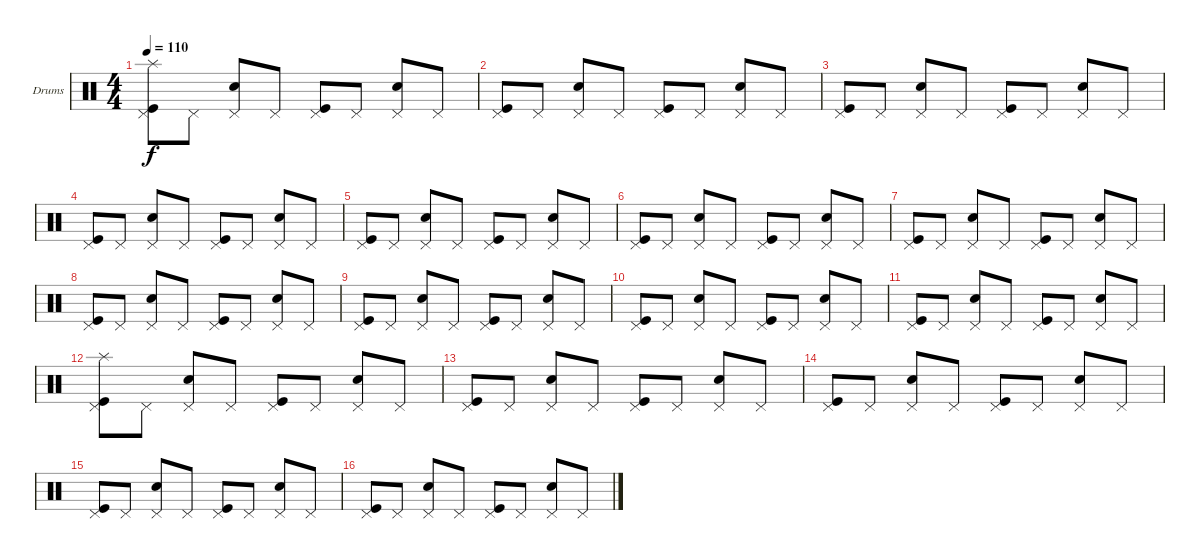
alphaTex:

\defaultSystemsLayout 4
\bracketExtendMode groupsimilarinstruments
\firstSystemTrackNameOrientation horizontal
\otherSystemsTrackNameOrientation horizontal
\track ("Drumkit" "Drums") {instrument percussion}
\staff {score}
\articulation defaults
\ts (4 4)
\tempo 110
\clef neutral
\ks c
("Pedal Hi-Hat (hit)" "Kick (hit)" "Splash (hit)").8{dy f} "Pedal Hi-Hat (hit)".8 ("Snare (hit) 2" "Pedal Hi-Hat (hit)").8 "Pedal Hi-Hat (hit)".8 ("Pedal Hi-Hat (hit)" "Kick (hit)").8 "Pedal Hi-Hat (hit)".8 ("Snare (hit) 2" "Pedal Hi-Hat (hit)").8 "Pedal Hi-Hat (hit)".8 |
("Pedal Hi-Hat (hit)" "Kick (hit)").8 "Pedal Hi-Hat (hit)".8 ("Snare (hit) 2" "Pedal Hi-Hat (hit)").8 "Pedal Hi-Hat (hit)".8 ("Pedal Hi-Hat (hit)" "Kick (hit)").8 "Pedal Hi-Hat (hit)".8 ("Snare (hit) 2" "Pedal Hi-Hat (hit)").8 "Pedal Hi-Hat (hit)".8 |
("Pedal Hi-Hat (hit)" "Kick (hit)").8 "Pedal Hi-Hat (hit)".8 ("Snare (hit) 2" "Pedal Hi-Hat (hit)").8 "Pedal Hi-Hat (hit)".8 ("Pedal Hi-Hat (hit)" "Kick (hit)").8 "Pedal Hi-Hat (hit)".8 ("Snare (hit) 2" "Pedal Hi-Hat (hit)").8 "Pedal Hi-Hat (hit)".8 |
("Pedal Hi-Hat (hit)" "Kick (hit)").8 "Pedal Hi-Hat (hit)".8 ("Snare (hit) 2" "Pedal Hi-Hat (hit)").8 "Pedal Hi-Hat (hit)".8 ("Pedal Hi-Hat (hit)" "Kick (hit)").8 "Pedal Hi-Hat (hit)".8 ("Snare (hit) 2" "Pedal Hi-Hat (hit)").8 "Pedal Hi-Hat (hit)".8 |
("Pedal Hi-Hat (hit)" "Kick (hit)").8 "Pedal Hi-Hat (hit)".8 ("Snare (hit) 2" "Pedal Hi-Hat (hit)").8 "Pedal Hi-Hat (hit)".8 ("Pedal Hi-Hat (hit)" "Kick (hit)").8 "Pedal Hi-Hat (hit)".8 ("Snare (hit) 2" "Pedal Hi-Hat (hit)").8 "Pedal Hi-Hat (hit)".8 |
("Pedal Hi-Hat (hit)" "Kick (hit)").8 "Pedal Hi-Hat (hit)".8 ("Snare (hit) 2" "Pedal Hi-Hat (hit)").8 "Pedal Hi-Hat (hit)".8 ("Pedal Hi-Hat (hit)" "Kick (hit)").8 "Pedal Hi-Hat (hit)".8 ("Snare (hit) 2" "Pedal Hi-Hat (hit)").8 "Pedal Hi-Hat (hit)".8 |
("Pedal Hi-Hat (hit)" "Kick (hit)").8 "Pedal Hi-Hat (hit)".8 ("Snare (hit) 2" "Pedal Hi-Hat (hit)").8 "Pedal Hi-Hat (hit)".8 ("Pedal Hi-Hat (hit)" "Kick (hit)").8 "Pedal Hi-Hat (hit)".8 ("Snare (hit) 2" "Pedal Hi-Hat (hit)").8 "Pedal Hi-Hat (hit)".8 |
("Pedal Hi-Hat (hit)" "Kick (hit)").8 "Pedal Hi-Hat (hit)".8 ("Snare (hit) 2" "Pedal Hi-Hat (hit)").8 "Pedal Hi-Hat (hit)".8 ("Pedal Hi-Hat (hit)" "Kick (hit)").8 "Pedal Hi-Hat (hit)".8 ("Snare (hit) 2" "Pedal Hi-Hat (hit)").8 "Pedal Hi-Hat (hit)".8 |
("Pedal Hi-Hat (hit)" "Kick (hit)").8 "Pedal Hi-Hat (hit)".8 ("Snare (hit) 2" "Pedal Hi-Hat (hit)").8 "Pedal Hi-Hat (hit)".8 ("Pedal Hi-Hat (hit)" "Kick (hit)").8 "Pedal Hi-Hat (hit)".8 ("Snare (hit) 2" "Pedal Hi-Hat (hit)").8 "Pedal Hi-Hat (hit)".8 |
("Pedal Hi-Hat (hit)" "Kick (hit)").8 "Pedal Hi-Hat (hit)".8 ("Snare (hit) 2" "Pedal Hi-Hat (hit)").8 "Pedal Hi-Hat (hit)".8 ("Pedal Hi-Hat (hit)" "Kick (hit)").8 "Pedal Hi-Hat (hit)".8 ("Snare (hit) 2" "Pedal Hi-Hat (hit)").8 "Pedal Hi-Hat (hit)".8 |
("Pedal Hi-Hat (hit)" "Kick (hit)").8 "Pedal Hi-Hat (hit)".8 ("Snare (hit) 2" "Pedal Hi-Hat (hit)").8 "Pedal Hi-Hat (hit)".8 ("Pedal Hi-Hat (hit)" "Kick (hit)").8 "Pedal Hi-Hat (hit)".8 ("Snare (hit) 2" "Pedal Hi-Hat (hit)").8 "Pedal Hi-Hat (hit)".8 |
("Pedal Hi-Hat (hit)" "Kick (hit)" "Splash (hit)").8 "Pedal Hi-Hat (hit)".8 ("Snare (hit) 2" "Pedal Hi-Hat (hit)").8 "Pedal Hi-Hat (hit)".8 ("Pedal Hi-Hat (hit)" "Kick (hit)").8 "Pedal Hi-Hat (hit)".8 ("Snare (hit) 2" "Pedal Hi-Hat (hit)").8 "Pedal Hi-Hat (hit)".8 |
("Pedal Hi-Hat (hit)" "Kick (hit)").8 "Pedal Hi-Hat (hit)".8 ("Snare (hit) 2" "Pedal Hi-Hat (hit)").8 "Pedal Hi-Hat (hit)".8 ("Pedal Hi-Hat (hit)" "Kick (hit)").8 "Pedal Hi-Hat (hit)".8 ("Snare (hit) 2" "Pedal Hi-Hat (hit)").8 "Pedal Hi-Hat (hit)".8 |
("Pedal Hi-Hat (hit)" "Kick (hit)").8 "Pedal Hi-Hat (hit)".8 ("Snare (hit) 2" "Pedal Hi-Hat (hit)").8 "Pedal Hi-Hat (hit)".8 ("Pedal Hi-Hat (hit)" "Kick (hit)").8 "Pedal Hi-Hat (hit)".8 ("Snare (hit) 2" "Pedal Hi-Hat (hit)").8 "Pedal Hi-Hat (hit)".8 |
("Pedal Hi-Hat (hit)" "Kick (hit)").8 "Pedal Hi-Hat (hit)".8 ("Snare (hit) 2" "Pedal Hi-Hat (hit)").8 "Pedal Hi-Hat (hit)".8 ("Pedal Hi-Hat (hit)" "Kick (hit)").8 "Pedal Hi-Hat (hit)".8 ("Snare (hit) 2" "Pedal Hi-Hat (hit)").8 "Pedal Hi-Hat (hit)".8 |
("Pedal Hi-Hat (hit)" "Kick (hit)").8 "Pedal Hi-Hat (hit)".8 ("Snare (hit) 2" "Pedal Hi-Hat (hit)").8 "Pedal Hi-Hat (hit)".8 ("Pedal Hi-Hat (hit)" "Kick (hit)").8 "Pedal Hi-Hat (hit)".8 ("Snare (hit) 2" "Pedal Hi-Hat (hit)").8 "Pedal Hi-Hat (hit)".8
